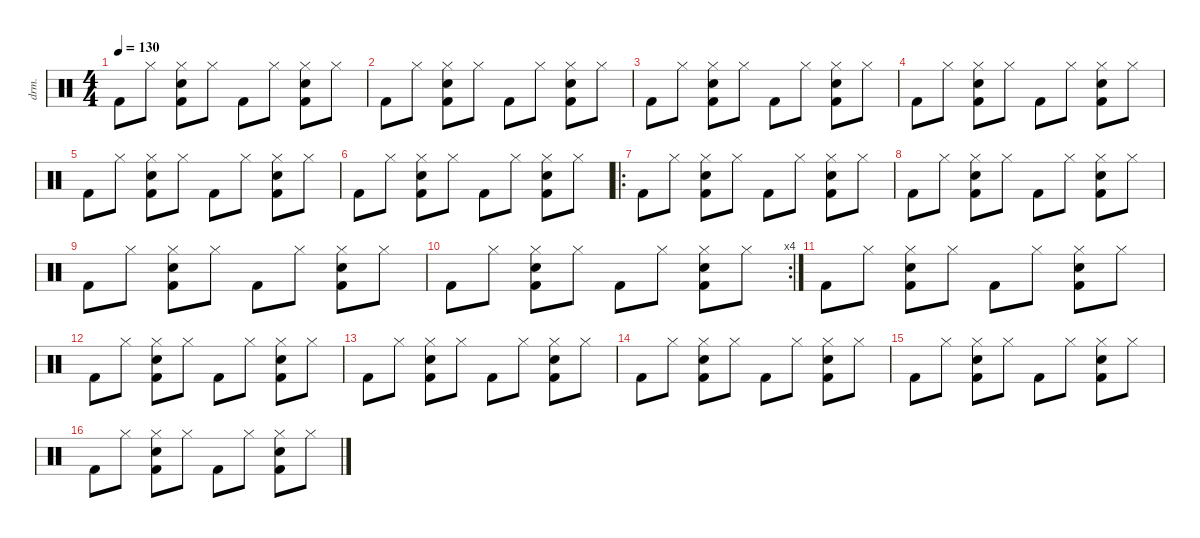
\defaultSystemsLayout 4
\hideDynamics
\bracketExtendMode nobrackets
\otherSystemsTrackNameOrientation horizontal
\track ("Percussion" "drm.") {defaultSystemsLayout 4 instrument percussion}
\staff {score}
\articulation defaults
\ts (4 4)
\tempo 130
\clef neutral
\ks c "Kick (hit) 2".8{dy f beam Down} "Hi-Hat (closed)".8{beam Down}
("Hi-Hat (closed)" "Snare (hit) 2" "Kick (hit) 2").8{beam Down} "Hi-Hat (closed)".8{beam Down} "Kick (hit) 2".8{beam Down} "Hi-Hat (closed)".8{beam Down} ("Hi-Hat (closed)" "Snare (hit) 2" "Kick (hit) 2").8{beam Down} "Hi-Hat (closed)".8{beam Down} |
"Kick (hit) 2".8{beam Down} "Hi-Hat (closed)".8{beam Down} ("Hi-Hat (closed)" "Snare (hit) 2" "Kick (hit) 2").8{beam Down} "Hi-Hat (closed)".8{beam Down} "Kick (hit) 2".8{beam Down} "Hi-Hat (closed)".8{beam Down} ("Hi-Hat (closed)" "Snare (hit) 2" "Kick (hit) 2").8{beam Down} "Hi-Hat (closed)".8{beam Down} |
"Kick (hit) 2".8{beam Down} "Hi-Hat (closed)".8{beam Down} ("Hi-Hat (closed)" "Snare (hit) 2" "Kick (hit) 2").8{beam Down} "Hi-Hat (closed)".8{beam Down} "Kick (hit) 2".8{beam Down} "Hi-Hat (closed)".8{beam Down} ("Hi-Hat (closed)" "Snare (hit) 2" "Kick (hit) 2").8{beam Down} "Hi-Hat (closed)".8{beam Down} |
"Kick (hit) 2".8{beam Down} "Hi-Hat (closed)".8{beam Down} ("Hi-Hat (closed)" "Snare (hit) 2" "Kick (hit) 2").8{beam Down} "Hi-Hat (closed)".8{beam Down} "Kick (hit) 2".8{beam Down} "Hi-Hat (closed)".8{beam Down} ("Hi-Hat (closed)" "Snare (hit) 2" "Kick (hit) 2").8{beam Down} "Hi-Hat (closed)".8{beam Down} |
"Kick (hit) 2".8{beam Down} "Hi-Hat (closed)".8{beam Down} ("Hi-Hat (closed)" "Snare (hit) 2" "Kick (hit) 2").8{beam Down} "Hi-Hat (closed)".8{beam Down} "Kick (hit) 2".8{beam Down} "Hi-Hat (closed)".8{beam Down} ("Hi-Hat (closed)" "Snare (hit) 2" "Kick (hit) 2").8{beam Down} "Hi-Hat (closed)".8{beam Down} |
"Kick (hit) 2".8{beam Down} "Hi-Hat (closed)".8{beam Down} ("Hi-Hat (closed)" "Snare (hit) 2" "Kick (hit) 2").8{beam Down} "Hi-Hat (closed)".8{beam Down} "Kick (hit) 2".8{beam Down} "Hi-Hat (closed)".8{beam Down} ("Hi-Hat (closed)" "Snare (hit) 2" "Kick (hit) 2").8{beam Down} "Hi-Hat (closed)".8{beam Down} |
\ro "Kick (hit) 2".8{beam Down} "Hi-Hat (closed)".8{beam Down}
("Hi-Hat (closed)" "Snare (hit) 2" "Kick (hit) 2").8{beam Down} "Hi-Hat (closed)".8{beam Down} "Kick (hit) 2".8{beam Down} "Hi-Hat (closed)".8{beam Down} ("Hi-Hat (closed)" "Snare (hit) 2" "Kick (hit) 2").8{beam Down} "Hi-Hat (closed)".8{beam Down} |
"Kick (hit) 2".8{beam Down} "Hi-Hat (closed)".8{beam Down} ("Hi-Hat (closed)" "Snare (hit) 2" "Kick (hit) 2").8{beam Down} "Hi-Hat (closed)".8{beam Down} "Kick (hit) 2".8{beam Down} "Hi-Hat (closed)".8{beam Down} ("Hi-Hat (closed)" "Snare (hit) 2" "Kick (hit) 2").8{beam Down} "Hi-Hat (closed)".8{beam Down} |
"Kick (hit) 2".8{beam Down} "Hi-Hat (closed)".8{beam Down} ("Hi-Hat (closed)" "Snare (hit) 2" "Kick (hit) 2").8{beam Down} "Hi-Hat (closed)".8{beam Down} "Kick (hit) 2".8{beam Down} "Hi-Hat (closed)".8{beam Down} ("Hi-Hat (closed)" "Snare (hit) 2" "Kick (hit) 2").8{beam Down} "Hi-Hat (closed)".8{beam Down} |
\rc 4 "Kick (hit) 2".8{beam Down} "Hi-Hat (closed)".8{beam Down}
("Hi-Hat (closed)" "Snare (hit) 2" "Kick (hit) 2").8{beam Down} "Hi-Hat (closed)".8{beam Down} "Kick (hit) 2".8{beam Down} "Hi-Hat (closed)".8{beam Down} ("Hi-Hat (closed)" "Snare (hit) 2" "Kick (hit) 2").8{beam Down} "Hi-Hat (closed)".8{beam Down} |
"Kick (hit) 2".8{beam Down} "Hi-Hat (closed)".8{beam Down} ("Hi-Hat (closed)" "Snare (hit) 2" "Kick (hit) 2").8{beam Down} "Hi-Hat (closed)".8{beam Down} "Kick (hit) 2".8{beam Down} "Hi-Hat (closed)".8{beam Down} ("Hi-Hat (closed)" "Snare (hit) 2" "Kick (hit) 2").8{beam Down} "Hi-Hat (closed)".8{beam Down} |
"Kick (hit) 2".8{beam Down} "Hi-Hat (closed)".8{beam Down} ("Hi-Hat (closed)" "Snare (hit) 2" "Kick (hit) 2").8{beam Down} "Hi-Hat (closed)".8{beam Down} "Kick (hit) 2".8{beam Down} "Hi-Hat (closed)".8{beam Down} ("Hi-Hat (closed)" "Snare (hit) 2" "Kick (hit) 2").8{beam Down} "Hi-Hat (closed)".8{beam Down} |
"Kick (hit) 2".8{beam Down} "Hi-Hat (closed)".8{beam Down} ("Hi-Hat (closed)" "Snare (hit) 2" "Kick (hit) 2").8{beam Down} "Hi-Hat (closed)".8{beam Down} "Kick (hit) 2".8{beam Down} "Hi-Hat (closed)".8{beam Down} ("Hi-Hat (closed)" "Snare (hit) 2" "Kick (hit) 2").8{beam Down} "Hi-Hat (closed)".8{beam Down} |
"Kick (hit) 2".8{beam Down} "Hi-Hat (closed)".8{beam Down} ("Hi-Hat (closed)" "Snare (hit) 2" "Kick (hit) 2").8{beam Down} "Hi-Hat (closed)".8{beam Down} "Kick (hit) 2".8{beam Down} "Hi-Hat (closed)".8{beam Down} ("Hi-Hat (closed)" "Snare (hit) 2" "Kick (hit) 2").8{beam Down} "Hi-Hat (closed)".8{beam Down} |
"Kick (hit) 2".8{beam Down} "Hi-Hat (closed)".8{beam Down} ("Hi-Hat (closed)" "Snare (hit) 2" "Kick (hit) 2").8{beam Down} "Hi-Hat (closed)".8{beam Down} "Kick (hit) 2".8{beam Down} "Hi-Hat (closed)".8{beam Down} ("Hi-Hat (closed)" "Snare (hit) 2" "Kick (hit) 2").8{beam Down} "Hi-Hat (closed)".8{beam Down} |
"Kick (hit) 2".8{beam Down} "Hi-Hat (closed)".8{beam Down} ("Hi-Hat (closed)" "Snare (hit) 2" "Kick (hit) 2").8{beam Down} "Hi-Hat (closed)".8{beam Down} "Kick (hit) 2".8{beam Down} "Hi-Hat (closed)".8{beam Down} ("Hi-Hat (closed)" "Snare (hit) 2" "Kick (hit) 2").8{beam Down} "Hi-Hat (closed)".8{beam Down}
